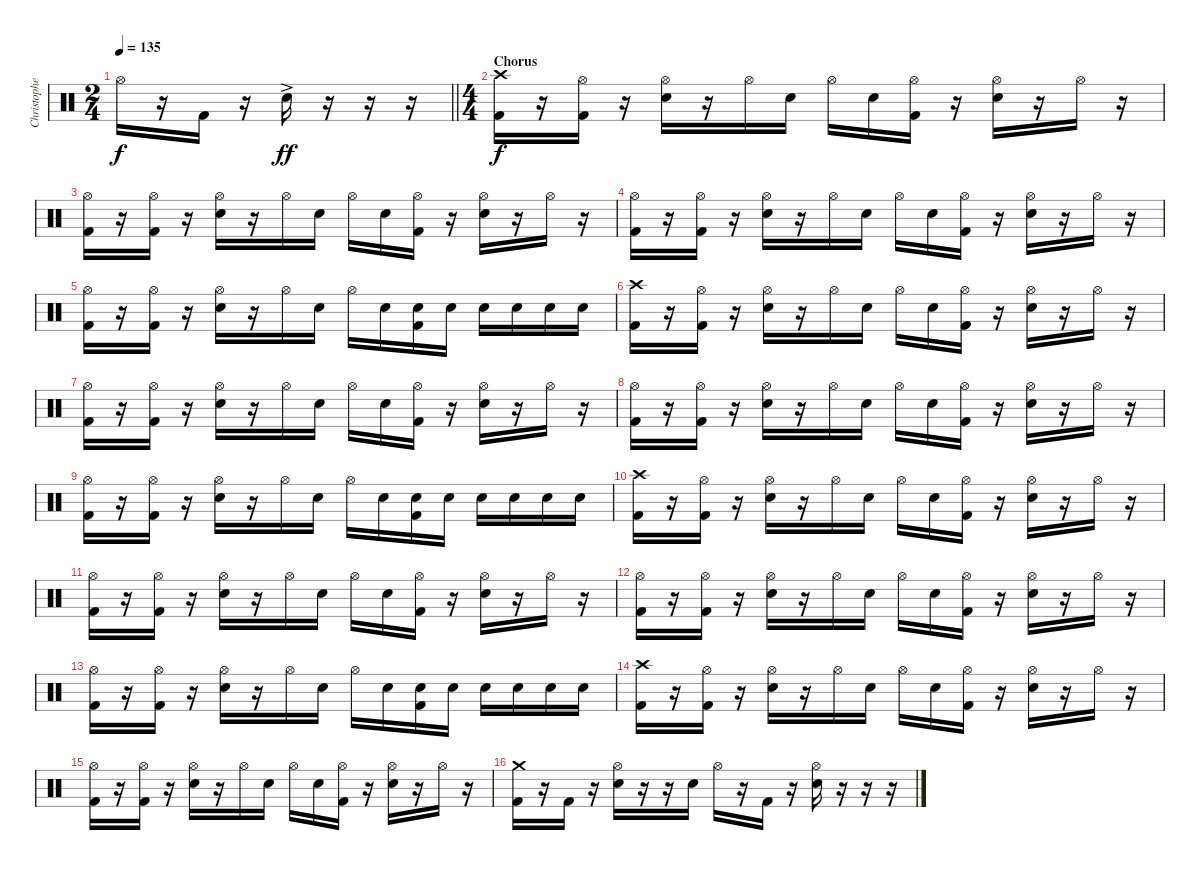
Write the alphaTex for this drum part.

\track ("Christopher - Drums" "Christophe") {instrument percussion}
\staff {score}
\articulation defaults
\ts (2 4)
\tempo 135
\clef neutral
\barLineRight lightlight
\ks c "Hi-Hat (open)".16{dy f}
r.16 "Kick (hit) 2".16 r.16 "Electric Snare (hit)"{ac}.16{dy ff} r.16 r.16 r.16 |
\ts (4 4)
\section ("" "Chorus")
("Crash high (hit)" "Kick (hit) 2").16{dy f} r.16 ("Hi-Hat (open)" "Kick (hit) 2").16 r.16 ("Hi-Hat (open)" "Electric Snare (hit)").16 r.16 "Hi-Hat (open)".16 "Electric Snare (hit)".16 "Hi-Hat (open)".16 "Electric Snare (hit)".16 ("Hi-Hat (open)" "Kick (hit) 2").16 r.16 ("Hi-Hat (open)" "Electric Snare (hit)").16 r.16 "Hi-Hat (open)".16 r.16 |
("Hi-Hat (open)" "Kick (hit) 2").16 r.16 ("Hi-Hat (open)" "Kick (hit) 2").16 r.16 ("Hi-Hat (open)" "Electric Snare (hit)").16 r.16 "Hi-Hat (open)".16 "Electric Snare (hit)".16 "Hi-Hat (open)".16 "Electric Snare (hit)".16 ("Hi-Hat (open)" "Kick (hit) 2").16 r.16 ("Hi-Hat (open)" "Electric Snare (hit)").16 r.16 "Hi-Hat (open)".16 r.16 |
("Hi-Hat (open)" "Kick (hit) 2").16 r.16 ("Hi-Hat (open)" "Kick (hit) 2").16 r.16 ("Hi-Hat (open)" "Electric Snare (hit)").16 r.16 "Hi-Hat (open)".16 "Electric Snare (hit)".16 "Hi-Hat (open)".16 "Electric Snare (hit)".16 ("Hi-Hat (open)" "Kick (hit) 2").16 r.16 ("Hi-Hat (open)" "Electric Snare (hit)").16 r.16 "Hi-Hat (open)".16 r.16 |
("Hi-Hat (open)" "Kick (hit) 2").16 r.16 ("Hi-Hat (open)" "Kick (hit) 2").16 r.16 ("Hi-Hat (open)" "Electric Snare (hit)").16 r.16 "Hi-Hat (open)".16 "Electric Snare (hit)".16 "Hi-Hat (open)".16 "Electric Snare (hit)".16 ("Electric Snare (hit)" "Kick (hit) 2").16 "Electric Snare (hit)".16 "Electric Snare (hit)".16 "Electric Snare (hit)".16 "Electric Snare (hit)".16 "Electric Snare (hit)".16 |
("Crash high (hit)" "Kick (hit) 2").16 r.16 ("Hi-Hat (open)" "Kick (hit) 2").16 r.16 ("Hi-Hat (open)" "Electric Snare (hit)").16 r.16 "Hi-Hat (open)".16 "Electric Snare (hit)".16 "Hi-Hat (open)".16 "Electric Snare (hit)".16 ("Hi-Hat (open)" "Kick (hit) 2").16 r.16 ("Hi-Hat (open)" "Electric Snare (hit)").16 r.16 "Hi-Hat (open)".16 r.16 |
("Hi-Hat (open)" "Kick (hit) 2").16 r.16 ("Hi-Hat (open)" "Kick (hit) 2").16 r.16 ("Hi-Hat (open)" "Electric Snare (hit)").16 r.16 "Hi-Hat (open)".16 "Electric Snare (hit)".16 "Hi-Hat (open)".16 "Electric Snare (hit)".16 ("Hi-Hat (open)" "Kick (hit) 2").16 r.16 ("Hi-Hat (open)" "Electric Snare (hit)").16 r.16 "Hi-Hat (open)".16 r.16 |
("Hi-Hat (open)" "Kick (hit) 2").16 r.16 ("Hi-Hat (open)" "Kick (hit) 2").16 r.16 ("Hi-Hat (open)" "Electric Snare (hit)").16 r.16 "Hi-Hat (open)".16 "Electric Snare (hit)".16 "Hi-Hat (open)".16 "Electric Snare (hit)".16 ("Hi-Hat (open)" "Kick (hit) 2").16 r.16 ("Hi-Hat (open)" "Electric Snare (hit)").16 r.16 "Hi-Hat (open)".16 r.16 |
("Hi-Hat (open)" "Kick (hit) 2").16 r.16 ("Hi-Hat (open)" "Kick (hit) 2").16 r.16 ("Hi-Hat (open)" "Electric Snare (hit)").16 r.16 "Hi-Hat (open)".16 "Electric Snare (hit)".16 "Hi-Hat (open)".16 "Electric Snare (hit)".16 ("Electric Snare (hit)" "Kick (hit) 2").16 "Electric Snare (hit)".16 "Electric Snare (hit)".16 "Electric Snare (hit)".16 "Electric Snare (hit)".16 "Electric Snare (hit)".16 |
("Crash high (hit)" "Kick (hit) 2").16 r.16 ("Hi-Hat (open)" "Kick (hit) 2").16 r.16 ("Hi-Hat (open)" "Electric Snare (hit)").16 r.16 "Hi-Hat (open)".16 "Electric Snare (hit)".16 "Hi-Hat (open)".16 "Electric Snare (hit)".16 ("Hi-Hat (open)" "Kick (hit) 2").16 r.16 ("Hi-Hat (open)" "Electric Snare (hit)").16 r.16 "Hi-Hat (open)".16 r.16 |
("Hi-Hat (open)" "Kick (hit) 2").16 r.16 ("Hi-Hat (open)" "Kick (hit) 2").16 r.16 ("Hi-Hat (open)" "Electric Snare (hit)").16 r.16 "Hi-Hat (open)".16 "Electric Snare (hit)".16 "Hi-Hat (open)".16 "Electric Snare (hit)".16 ("Hi-Hat (open)" "Kick (hit) 2").16 r.16 ("Hi-Hat (open)" "Electric Snare (hit)").16 r.16 "Hi-Hat (open)".16 r.16 |
("Hi-Hat (open)" "Kick (hit) 2").16 r.16 ("Hi-Hat (open)" "Kick (hit) 2").16 r.16 ("Hi-Hat (open)" "Electric Snare (hit)").16 r.16 "Hi-Hat (open)".16 "Electric Snare (hit)".16 "Hi-Hat (open)".16 "Electric Snare (hit)".16 ("Hi-Hat (open)" "Kick (hit) 2").16 r.16 ("Hi-Hat (open)" "Electric Snare (hit)").16 r.16 "Hi-Hat (open)".16 r.16 |
("Hi-Hat (open)" "Kick (hit) 2").16 r.16 ("Hi-Hat (open)" "Kick (hit) 2").16 r.16 ("Hi-Hat (open)" "Electric Snare (hit)").16 r.16 "Hi-Hat (open)".16 "Electric Snare (hit)".16 "Hi-Hat (open)".16 "Electric Snare (hit)".16 ("Electric Snare (hit)" "Kick (hit) 2").16 "Electric Snare (hit)".16 "Electric Snare (hit)".16 "Electric Snare (hit)".16 "Electric Snare (hit)".16 "Electric Snare (hit)".16 |
("Crash high (hit)" "Kick (hit) 2").16 r.16 ("Hi-Hat (open)" "Kick (hit) 2").16 r.16 ("Hi-Hat (open)" "Electric Snare (hit)").16 r.16 "Hi-Hat (open)".16 "Electric Snare (hit)".16 "Hi-Hat (open)".16 "Electric Snare (hit)".16 ("Hi-Hat (open)" "Kick (hit) 2").16 r.16 ("Hi-Hat (open)" "Electric Snare (hit)").16 r.16 "Hi-Hat (open)".16 r.16 |
("Hi-Hat (open)" "Kick (hit) 2").16 r.16 ("Hi-Hat (open)" "Kick (hit) 2").16 r.16 ("Hi-Hat (open)" "Electric Snare (hit)").16 r.16 "Hi-Hat (open)".16 "Electric Snare (hit)".16 "Hi-Hat (open)".16 "Electric Snare (hit)".16 ("Hi-Hat (open)" "Kick (hit) 2").16 r.16 ("Hi-Hat (open)" "Electric Snare (hit)").16 r.16 "Hi-Hat (open)".16 r.16 |
("Crash medium (hit)" "Kick (hit) 2").16 r.16 "Kick (hit) 2".16 r.16 ("Hi-Hat (open)" "Electric Snare (hit)").16 r.16 r.16 "Electric Snare (hit)".16 "Hi-Hat (open)".16 r.16 "Kick (hit) 2".16 r.16 ("Hi-Hat (open)" "Electric Snare (hit)").16 r.16 r.16 r.16
